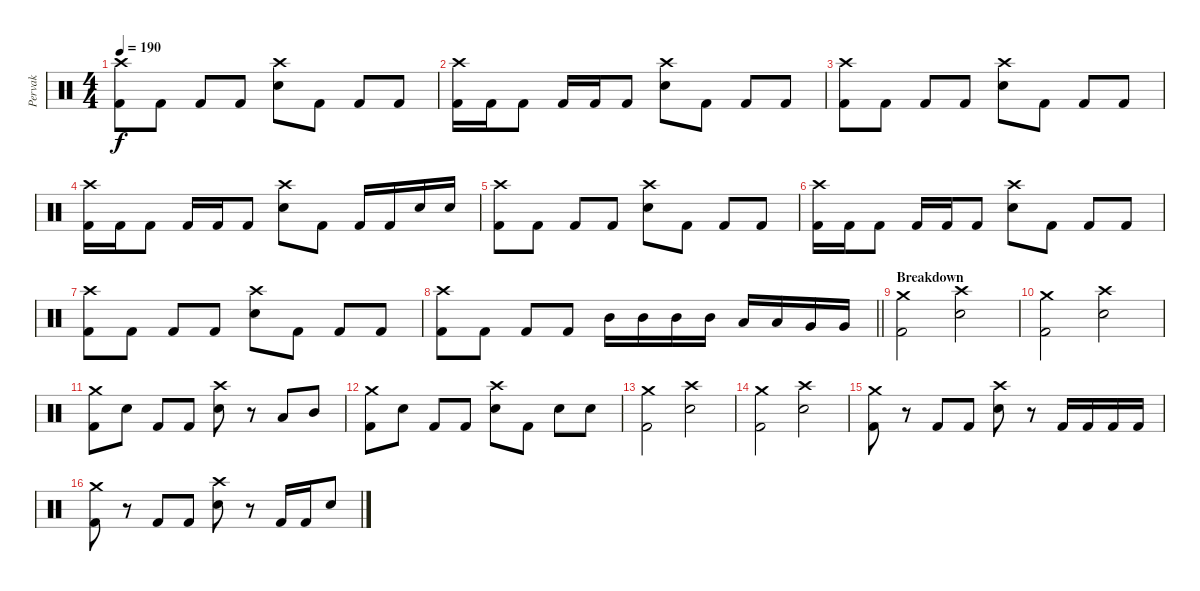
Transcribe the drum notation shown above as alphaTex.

\track ("Pervak" "Pervak") {instrument percussion}
\staff {score}
\articulation defaults
\ts (4 4)
\tempo 190
\clef neutral
\ks c
("Crash high (hit)" "Kick (hit) 2").8{dy f} "Kick (hit) 2".8 "Kick (hit) 2".8 "Kick (hit) 2".8 ("Crash high (hit)" "Electric Snare (hit)").8 "Kick (hit) 2".8 "Kick (hit) 2".8 "Kick (hit) 2".8 |
("Crash high (hit)" "Kick (hit) 2").16 "Kick (hit) 2".16 "Kick (hit) 2".8 "Kick (hit) 2".16 "Kick (hit) 2".16 "Kick (hit) 2".8 ("Crash high (hit)" "Electric Snare (hit)").8 "Kick (hit) 2".8 "Kick (hit) 2".8 "Kick (hit) 2".8 |
("Crash high (hit)" "Kick (hit) 2").8 "Kick (hit) 2".8 "Kick (hit) 2".8 "Kick (hit) 2".8 ("Crash high (hit)" "Electric Snare (hit)").8 "Kick (hit) 2".8 "Kick (hit) 2".8 "Kick (hit) 2".8 |
("Crash high (hit)" "Kick (hit) 2").16 "Kick (hit) 2".16 "Kick (hit) 2".8 "Kick (hit) 2".16 "Kick (hit) 2".16 "Kick (hit) 2".8 ("Crash high (hit)" "Electric Snare (hit)").8 "Kick (hit) 2".8 "Kick (hit) 2".16 "Kick (hit) 2".16 "Electric Snare (hit)".16 "Electric Snare (hit)".16 |
("Crash high (hit)" "Kick (hit) 2").8 "Kick (hit) 2".8 "Kick (hit) 2".8 "Kick (hit) 2".8 ("Crash high (hit)" "Electric Snare (hit)").8 "Kick (hit) 2".8 "Kick (hit) 2".8 "Kick (hit) 2".8 |
("Crash high (hit)" "Kick (hit) 2").16 "Kick (hit) 2".16 "Kick (hit) 2".8 "Kick (hit) 2".16 "Kick (hit) 2".16 "Kick (hit) 2".8 ("Crash high (hit)" "Electric Snare (hit)").8 "Kick (hit) 2".8 "Kick (hit) 2".8 "Kick (hit) 2".8 |
("Crash high (hit)" "Kick (hit) 2").8 "Kick (hit) 2".8 "Kick (hit) 2".8 "Kick (hit) 2".8 ("Crash high (hit)" "Electric Snare (hit)").8 "Kick (hit) 2".8 "Kick (hit) 2".8 "Kick (hit) 2".8 |
\barLineRight lightlight
("Crash high (hit)" "Kick (hit) 2").8 "Kick (hit) 2".8 "Kick (hit) 2".8 "Kick (hit) 2".8 "Mid Tom (hit)".16 "Mid Tom (hit)".16 "Mid Tom (hit)".16 "Mid Tom (hit)".16 "Low Tom (hit)".16 "Low Tom (hit)".16 "Very Low Tom (hit)".16 "Very Low Tom (hit)".16 |
\section ("" "Breakdown")
("Crash medium (hit)" "Kick (hit) 2").2 ("Crash high (hit)" "Electric Snare (hit)").2 |
("Crash medium (hit)" "Kick (hit) 2").2 ("Crash high (hit)" "Electric Snare (hit)").2 |
("Crash medium (hit)" "Kick (hit) 2").8 "Electric Snare (hit)".8 "Kick (hit) 2".8 "Kick (hit) 2".8 ("Crash high (hit)" "Electric Snare (hit)").8 r.8 "Low Tom (hit)".8 "Mid Tom (hit)".8 |
("Crash medium (hit)" "Kick (hit) 2").8 "Electric Snare (hit)".8 "Kick (hit) 2".8 "Kick (hit) 2".8 ("Crash high (hit)" "Electric Snare (hit)").8 "Kick (hit) 2".8 "Electric Snare (hit)".8 "Electric Snare (hit)".8 |
("Crash medium (hit)" "Kick (hit) 2").2 ("Crash high (hit)" "Electric Snare (hit)").2 |
("Crash medium (hit)" "Kick (hit) 2").2 ("Crash high (hit)" "Electric Snare (hit)").2 |
("Crash medium (hit)" "Kick (hit) 2").8 r.8 "Kick (hit) 2".8 "Kick (hit) 2".8 ("Crash high (hit)" "Electric Snare (hit)").8 r.8 "Kick (hit) 2".16 "Kick (hit) 2".16 "Kick (hit) 2".16 "Kick (hit) 2".16 |
("Crash medium (hit)" "Kick (hit) 2").8 r.8 "Kick (hit) 2".8 "Kick (hit) 2".8 ("Crash high (hit)" "Electric Snare (hit)").8 r.8 "Kick (hit) 2".16 "Kick (hit) 2".16 "Electric Snare (hit)".8
